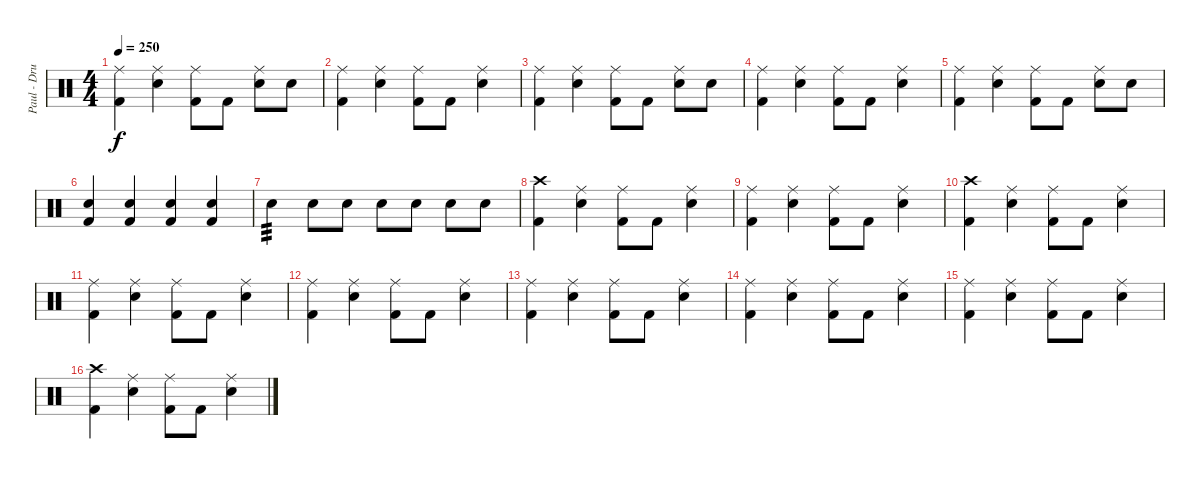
\track ("Paul - Drums" "Paul - Dru") {instrument percussion}
\staff {score}
\articulation defaults
\ts (4 4)
\tempo 250
\clef neutral
\ks c
("Ride (middle)" "Kick (hit) 2").4{dy f} ("Ride (middle)" "Electric Snare (hit)").4 ("Ride (middle)" "Kick (hit) 2").8 "Kick (hit) 2".8 ("Ride (middle)" "Electric Snare (hit)").8 "Electric Snare (hit)".8 |
("Ride (middle)" "Kick (hit) 2").4 ("Ride (middle)" "Electric Snare (hit)").4 ("Ride (middle)" "Kick (hit) 2").8 "Kick (hit) 2".8 ("Ride (middle)" "Electric Snare (hit)").4 |
("Ride (middle)" "Kick (hit) 2").4 ("Ride (middle)" "Electric Snare (hit)").4 ("Ride (middle)" "Kick (hit) 2").8 "Kick (hit) 2".8 ("Ride (middle)" "Electric Snare (hit)").8 "Electric Snare (hit)".8 |
("Ride (middle)" "Kick (hit) 2").4 ("Ride (middle)" "Electric Snare (hit)").4 ("Ride (middle)" "Kick (hit) 2").8 "Kick (hit) 2".8 ("Ride (middle)" "Electric Snare (hit)").4 |
("Ride (middle)" "Kick (hit) 2").4 ("Ride (middle)" "Electric Snare (hit)").4 ("Ride (middle)" "Kick (hit) 2").8 "Kick (hit) 2".8 ("Ride (middle)" "Electric Snare (hit)").8 "Electric Snare (hit)".8 |
("Electric Snare (hit)" "Kick (hit) 2").4 ("Electric Snare (hit)" "Kick (hit) 2").4 ("Electric Snare (hit)" "Kick (hit) 2").4 ("Electric Snare (hit)" "Kick (hit) 2").4 |
"Electric Snare (hit)".4{tp 3} "Electric Snare (hit)".8 "Electric Snare (hit)".8 "Electric Snare (hit)".8 "Electric Snare (hit)".8 "Electric Snare (hit)".8 "Electric Snare (hit)".8 |
("Crash high (hit)" "Kick (hit) 2").4 ("Ride (middle)" "Electric Snare (hit)").4 ("Ride (middle)" "Kick (hit) 2").8 "Kick (hit) 2".8 ("Ride (middle)" "Electric Snare (hit)").4 |
("Ride (middle)" "Kick (hit) 2").4 ("Ride (middle)" "Electric Snare (hit)").4 ("Ride (middle)" "Kick (hit) 2").8 "Kick (hit) 2".8 ("Ride (middle)" "Electric Snare (hit)").4 |
("Crash high (hit)" "Kick (hit) 2").4 ("Ride (middle)" "Electric Snare (hit)").4 ("Ride (middle)" "Kick (hit) 2").8 "Kick (hit) 2".8 ("Ride (middle)" "Electric Snare (hit)").4 |
("Ride (middle)" "Kick (hit) 2").4 ("Ride (middle)" "Electric Snare (hit)").4 ("Ride (middle)" "Kick (hit) 2").8 "Kick (hit) 2".8 ("Ride (middle)" "Electric Snare (hit)").4 |
("Ride (middle)" "Kick (hit) 2").4 ("Ride (middle)" "Electric Snare (hit)").4 ("Ride (middle)" "Kick (hit) 2").8 "Kick (hit) 2".8 ("Ride (middle)" "Electric Snare (hit)").4 |
("Ride (middle)" "Kick (hit) 2").4 ("Ride (middle)" "Electric Snare (hit)").4 ("Ride (middle)" "Kick (hit) 2").8 "Kick (hit) 2".8 ("Ride (middle)" "Electric Snare (hit)").4 |
("Ride (middle)" "Kick (hit) 2").4 ("Ride (middle)" "Electric Snare (hit)").4 ("Ride (middle)" "Kick (hit) 2").8 "Kick (hit) 2".8 ("Ride (middle)" "Electric Snare (hit)").4 |
("Ride (middle)" "Kick (hit) 2").4 ("Ride (middle)" "Electric Snare (hit)").4 ("Ride (middle)" "Kick (hit) 2").8 "Kick (hit) 2".8 ("Ride (middle)" "Electric Snare (hit)").4 |
("Crash high (hit)" "Kick (hit) 2").4 ("Ride (middle)" "Electric Snare (hit)").4 ("Ride (middle)" "Kick (hit) 2").8 "Kick (hit) 2".8 ("Ride (middle)" "Electric Snare (hit)").4
